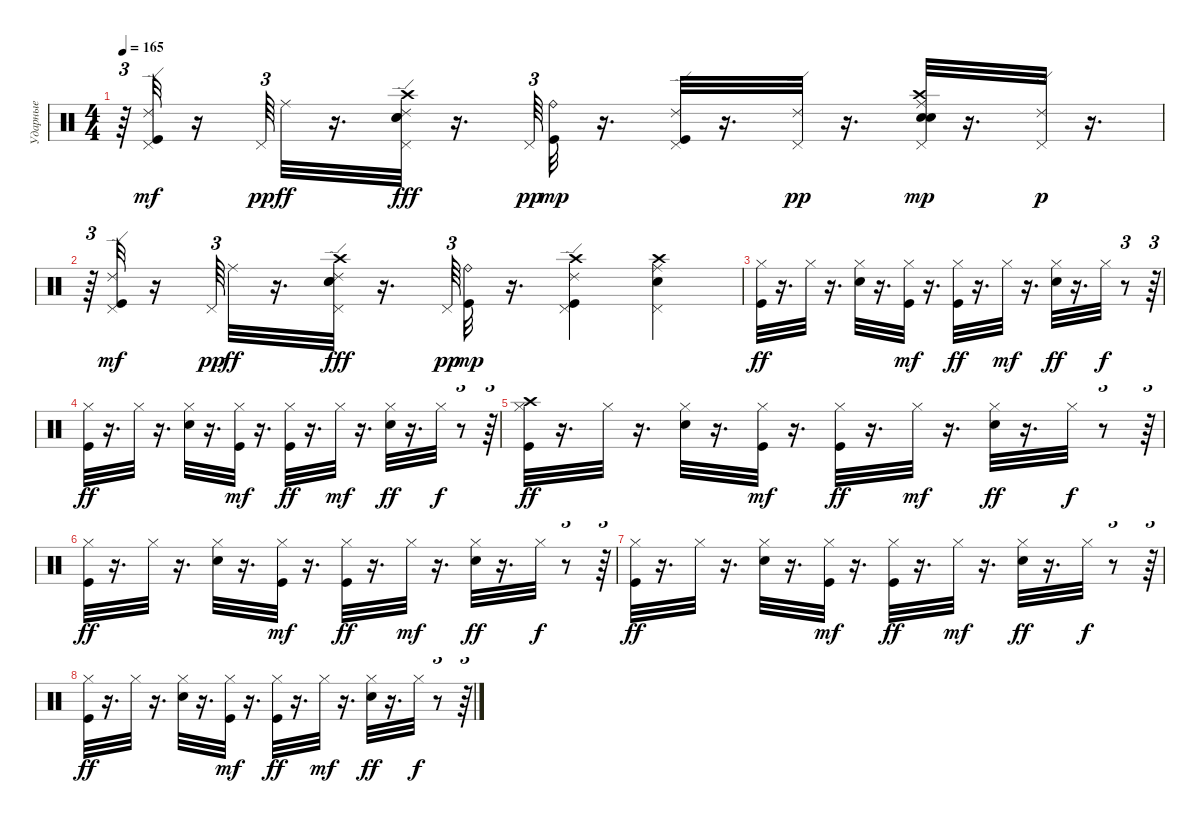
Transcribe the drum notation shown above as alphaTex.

\track ("Ударные" "Ударные") {instrument percussion}
\staff {score}
\articulation defaults
\ts (4 4)
\tempo 165
\clef neutral
\ks c
r.64{tu (3 2) dy ff} ("Kick (hit)" "Ride (edge) 2" "Pedal Hi-Hat (hit)").32{dy mf} r.16 "Pedal Hi-Hat (hit)".64{tu (3 2) dy pp} "Ride (middle)".32{dy ff} r.16{d} ("Pedal Hi-Hat (hit)" "Electric Snare (hit)" "Crash high (hit)" "Snare (hit) 2" "Ride (edge) 2").32{dy fff} r.16{d} "Pedal Hi-Hat (hit)".64{tu (3 2) dy pp} ("Kick (hit)" "Ride (bell)").32{dy mp} r.16{d} ("Kick (hit)" "Ride (edge) 2" "Pedal Hi-Hat (hit)").32 r.16{d} ("Ride (edge) 2" "Pedal Hi-Hat (hit)").32{dy pp} r.16{d} ("Electric Snare (hit)" "Snare (hit) 2" "Ride (middle)" "Pedal Hi-Hat (hit)" "Crash high (hit)").32{dy mp} r.16{d} ("Ride (edge) 2" "Pedal Hi-Hat (hit)").32{dy p} r.16{d} |
r.64{tu (3 2)} ("Kick (hit)" "Ride (edge) 2" "Pedal Hi-Hat (hit)").32{dy mf} r.16 "Pedal Hi-Hat (hit)".64{tu (3 2) dy pp} "Ride (middle)".32{dy ff} r.16{d} ("Pedal Hi-Hat (hit)" "Electric Snare (hit)" "Crash high (hit)" "Snare (hit) 2" "Ride (edge) 2").32{dy fff} r.16{d} "Pedal Hi-Hat (hit)".64{tu (3 2) dy pp} ("Kick (hit)" "Ride (bell)").32{dy mp} r.16{d} ("Kick (hit)" "Ride (edge) 2" "Pedal Hi-Hat (hit)" "Crash high (hit)").4 ("Electric Snare (hit)" "Ride (middle)" "Pedal Hi-Hat (hit)" "Crash high (hit)").4 |
("Kick (hit)" "Hi-Hat (closed)").32{dy ff} r.16{d} "Hi-Hat (closed)".32 r.16{d} ("Hi-Hat (closed)" "Electric Snare (hit)").32 r.16{d} ("Kick (hit)" "Hi-Hat (closed)").32{dy mf} r.16{d} ("Kick (hit)" "Hi-Hat (closed)").32{dy ff} r.16{d} "Hi-Hat (closed)".32{dy mf} r.16{d} ("Hi-Hat (closed)" "Electric Snare (hit)").32{dy ff} r.16{d} "Hi-Hat (closed)".32{dy f} r.8{tu (3 2)} r.64{tu (3 2)} |
("Kick (hit)" "Hi-Hat (closed)").32{dy ff} r.16{d} "Hi-Hat (closed)".32 r.16{d} ("Hi-Hat (closed)" "Electric Snare (hit)").32 r.16{d} ("Kick (hit)" "Hi-Hat (closed)").32{dy mf} r.16{d} ("Kick (hit)" "Hi-Hat (closed)").32{dy ff} r.16{d} "Hi-Hat (closed)".32{dy mf} r.16{d} ("Hi-Hat (closed)" "Electric Snare (hit)").32{dy ff} r.16{d} "Hi-Hat (closed)".32{dy f} r.8{tu (3 2)} r.64{tu (3 2)} |
("Kick (hit)" "Hi-Hat (closed)" "Crash high (hit)").32{dy ff} r.16{d} "Hi-Hat (closed)".32 r.16{d} ("Hi-Hat (closed)" "Electric Snare (hit)").32 r.16{d} ("Kick (hit)" "Hi-Hat (closed)").32{dy mf} r.16{d} ("Kick (hit)" "Hi-Hat (closed)").32{dy ff} r.16{d} "Hi-Hat (closed)".32{dy mf} r.16{d} ("Hi-Hat (closed)" "Electric Snare (hit)").32{dy ff} r.16{d} "Hi-Hat (closed)".32{dy f} r.8{tu (3 2)} r.64{tu (3 2)} |
("Kick (hit)" "Hi-Hat (closed)").32{dy ff} r.16{d} "Hi-Hat (closed)".32 r.16{d} ("Hi-Hat (closed)" "Electric Snare (hit)").32 r.16{d} ("Kick (hit)" "Hi-Hat (closed)").32{dy mf} r.16{d} ("Kick (hit)" "Hi-Hat (closed)").32{dy ff} r.16{d} "Hi-Hat (closed)".32{dy mf} r.16{d} ("Hi-Hat (closed)" "Electric Snare (hit)").32{dy ff} r.16{d} "Hi-Hat (closed)".32{dy f} r.8{tu (3 2)} r.64{tu (3 2)} |
("Kick (hit)" "Hi-Hat (closed)").32{dy ff} r.16{d} "Hi-Hat (closed)".32 r.16{d} ("Hi-Hat (closed)" "Electric Snare (hit)").32 r.16{d} ("Kick (hit)" "Hi-Hat (closed)").32{dy mf} r.16{d} ("Kick (hit)" "Hi-Hat (closed)").32{dy ff} r.16{d} "Hi-Hat (closed)".32{dy mf} r.16{d} ("Hi-Hat (closed)" "Electric Snare (hit)").32{dy ff} r.16{d} "Hi-Hat (closed)".32{dy f} r.8{tu (3 2)} r.64{tu (3 2)} |
("Kick (hit)" "Hi-Hat (closed)").32{dy ff} r.16{d} "Hi-Hat (closed)".32 r.16{d} ("Hi-Hat (closed)" "Electric Snare (hit)").32 r.16{d} ("Kick (hit)" "Hi-Hat (closed)").32{dy mf} r.16{d} ("Kick (hit)" "Hi-Hat (closed)").32{dy ff} r.16{d} "Hi-Hat (closed)".32{dy mf} r.16{d} ("Hi-Hat (closed)" "Electric Snare (hit)").32{dy ff} r.16{d} "Hi-Hat (closed)".32{dy f} r.8{tu (3 2)} r.64{tu (3 2)}
